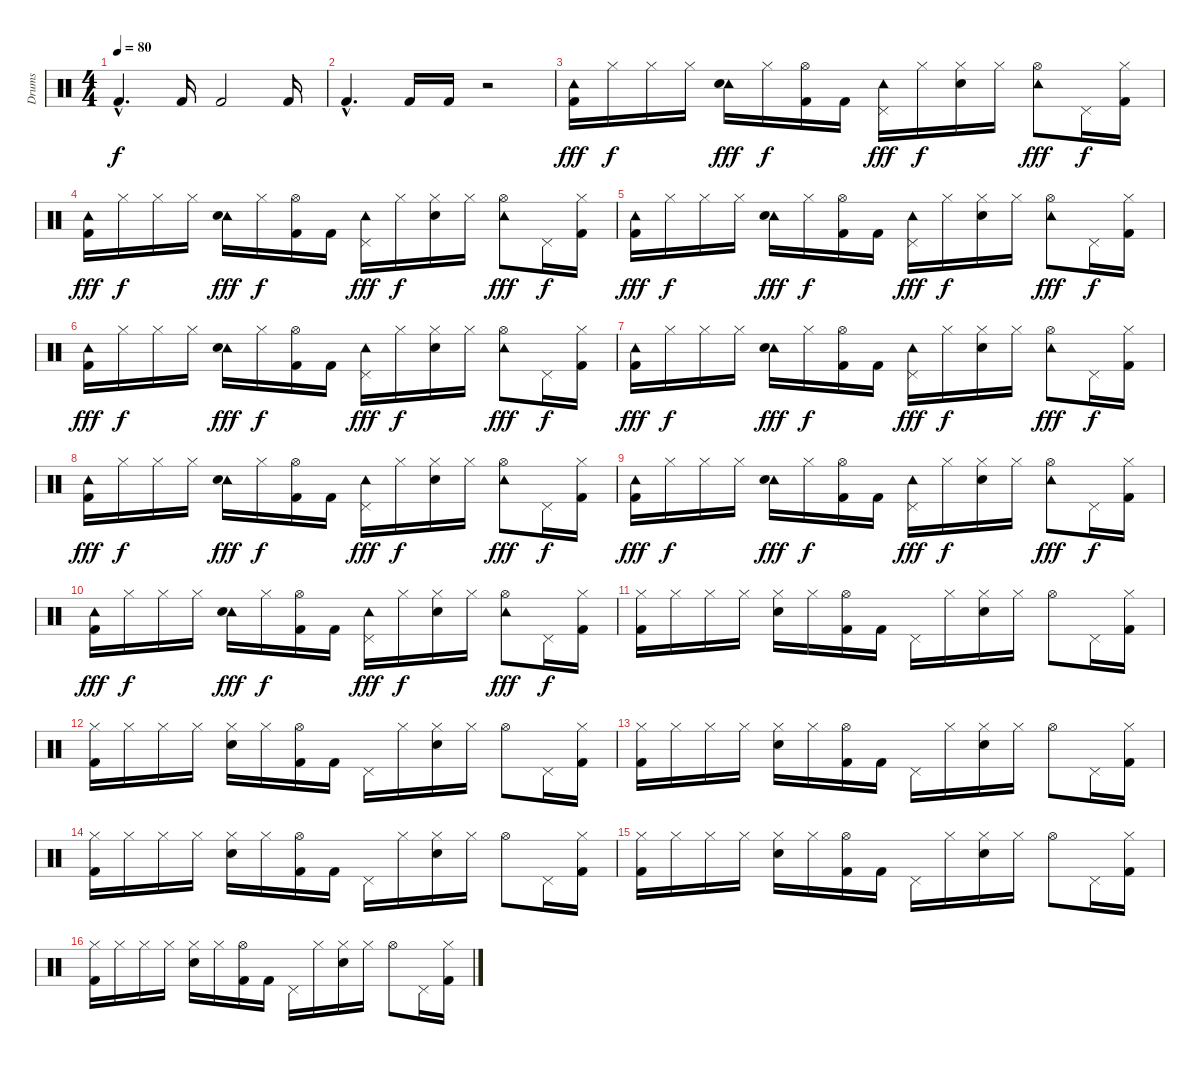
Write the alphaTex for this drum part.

\track ("Drums" "Drums") {instrument percussion}
\staff {score}
\articulation defaults
\ts (4 4)
\tempo 80
\clef neutral
\ks c "Kick (hit) 2"{hac}.4{d dy f} "Kick (hit) 2".16 "Kick (hit) 2".2 "Kick (hit) 2".16
|
"Kick (hit) 2"{hac}.4{d} "Kick (hit) 2".16 "Kick (hit) 2".16 r.2 |
("Tambourine (hit)" "Kick (hit) 2").16{dy fff} "Hi-Hat (closed)".16{dy f} "Hi-Hat (closed)".16 "Hi-Hat (closed)".16 ("Tambourine (hit)" "Electric Snare (hit)").16{dy fff} "Hi-Hat (closed)".16{dy f} ("Hi-Hat (open)" "Kick (hit) 2").16 "Kick (hit) 2".16 ("Pedal Hi-Hat (hit)" "Tambourine (hit)").16{dy fff} "Hi-Hat (closed)".16{dy f} ("Hi-Hat (closed)" "Electric Snare (hit)").16 "Hi-Hat (closed)".16 ("Hi-Hat (open)" "Tambourine (hit)").8{dy fff} "Pedal Hi-Hat (hit)".16{dy f} ("Hi-Hat (closed)" "Kick (hit) 2").16 |
("Tambourine (hit)" "Kick (hit) 2").16{dy fff} "Hi-Hat (closed)".16{dy f} "Hi-Hat (closed)".16 "Hi-Hat (closed)".16 ("Tambourine (hit)" "Electric Snare (hit)").16{dy fff} "Hi-Hat (closed)".16{dy f} ("Hi-Hat (open)" "Kick (hit) 2").16 "Kick (hit) 2".16 ("Pedal Hi-Hat (hit)" "Tambourine (hit)").16{dy fff} "Hi-Hat (closed)".16{dy f} ("Hi-Hat (closed)" "Electric Snare (hit)").16 "Hi-Hat (closed)".16 ("Hi-Hat (open)" "Tambourine (hit)").8{dy fff} "Pedal Hi-Hat (hit)".16{dy f} ("Hi-Hat (closed)" "Kick (hit) 2").16 |
("Tambourine (hit)" "Kick (hit) 2").16{dy fff} "Hi-Hat (closed)".16{dy f} "Hi-Hat (closed)".16 "Hi-Hat (closed)".16 ("Tambourine (hit)" "Electric Snare (hit)").16{dy fff} "Hi-Hat (closed)".16{dy f} ("Hi-Hat (open)" "Kick (hit) 2").16 "Kick (hit) 2".16 ("Pedal Hi-Hat (hit)" "Tambourine (hit)").16{dy fff} "Hi-Hat (closed)".16{dy f} ("Hi-Hat (closed)" "Electric Snare (hit)").16 "Hi-Hat (closed)".16 ("Hi-Hat (open)" "Tambourine (hit)").8{dy fff} "Pedal Hi-Hat (hit)".16{dy f} ("Hi-Hat (closed)" "Kick (hit) 2").16 |
("Tambourine (hit)" "Kick (hit) 2").16{dy fff} "Hi-Hat (closed)".16{dy f} "Hi-Hat (closed)".16 "Hi-Hat (closed)".16 ("Tambourine (hit)" "Electric Snare (hit)").16{dy fff} "Hi-Hat (closed)".16{dy f} ("Hi-Hat (open)" "Kick (hit) 2").16 "Kick (hit) 2".16 ("Pedal Hi-Hat (hit)" "Tambourine (hit)").16{dy fff} "Hi-Hat (closed)".16{dy f} ("Hi-Hat (closed)" "Electric Snare (hit)").16 "Hi-Hat (closed)".16 ("Hi-Hat (open)" "Tambourine (hit)").8{dy fff} "Pedal Hi-Hat (hit)".16{dy f} ("Hi-Hat (closed)" "Kick (hit) 2").16 |
("Tambourine (hit)" "Kick (hit) 2").16{dy fff} "Hi-Hat (closed)".16{dy f} "Hi-Hat (closed)".16 "Hi-Hat (closed)".16 ("Tambourine (hit)" "Electric Snare (hit)").16{dy fff} "Hi-Hat (closed)".16{dy f} ("Hi-Hat (open)" "Kick (hit) 2").16 "Kick (hit) 2".16 ("Pedal Hi-Hat (hit)" "Tambourine (hit)").16{dy fff} "Hi-Hat (closed)".16{dy f} ("Hi-Hat (closed)" "Electric Snare (hit)").16 "Hi-Hat (closed)".16 ("Hi-Hat (open)" "Tambourine (hit)").8{dy fff} "Pedal Hi-Hat (hit)".16{dy f} ("Hi-Hat (closed)" "Kick (hit) 2").16 |
("Tambourine (hit)" "Kick (hit) 2").16{dy fff} "Hi-Hat (closed)".16{dy f} "Hi-Hat (closed)".16 "Hi-Hat (closed)".16 ("Tambourine (hit)" "Electric Snare (hit)").16{dy fff} "Hi-Hat (closed)".16{dy f} ("Hi-Hat (open)" "Kick (hit) 2").16 "Kick (hit) 2".16 ("Pedal Hi-Hat (hit)" "Tambourine (hit)").16{dy fff} "Hi-Hat (closed)".16{dy f} ("Hi-Hat (closed)" "Electric Snare (hit)").16 "Hi-Hat (closed)".16 ("Hi-Hat (open)" "Tambourine (hit)").8{dy fff} "Pedal Hi-Hat (hit)".16{dy f} ("Hi-Hat (closed)" "Kick (hit) 2").16 |
("Tambourine (hit)" "Kick (hit) 2").16{dy fff} "Hi-Hat (closed)".16{dy f} "Hi-Hat (closed)".16 "Hi-Hat (closed)".16 ("Tambourine (hit)" "Electric Snare (hit)").16{dy fff} "Hi-Hat (closed)".16{dy f} ("Hi-Hat (open)" "Kick (hit) 2").16 "Kick (hit) 2".16 ("Pedal Hi-Hat (hit)" "Tambourine (hit)").16{dy fff} "Hi-Hat (closed)".16{dy f} ("Hi-Hat (closed)" "Electric Snare (hit)").16 "Hi-Hat (closed)".16 ("Hi-Hat (open)" "Tambourine (hit)").8{dy fff} "Pedal Hi-Hat (hit)".16{dy f} ("Hi-Hat (closed)" "Kick (hit) 2").16 |
("Tambourine (hit)" "Kick (hit) 2").16{dy fff} "Hi-Hat (closed)".16{dy f} "Hi-Hat (closed)".16 "Hi-Hat (closed)".16 ("Tambourine (hit)" "Electric Snare (hit)").16{dy fff} "Hi-Hat (closed)".16{dy f} ("Hi-Hat (open)" "Kick (hit) 2").16 "Kick (hit) 2".16 ("Pedal Hi-Hat (hit)" "Tambourine (hit)").16{dy fff} "Hi-Hat (closed)".16{dy f} ("Hi-Hat (closed)" "Electric Snare (hit)").16 "Hi-Hat (closed)".16 ("Hi-Hat (open)" "Tambourine (hit)").8{dy fff} "Pedal Hi-Hat (hit)".16{dy f} ("Hi-Hat (closed)" "Kick (hit) 2").16 |
("Hi-Hat (closed)" "Kick (hit) 2").16 "Hi-Hat (closed)".16 "Hi-Hat (closed)".16 "Hi-Hat (closed)".16 ("Hi-Hat (closed)" "Electric Snare (hit)").16 "Hi-Hat (closed)".16 ("Hi-Hat (open)" "Kick (hit) 2").16 "Kick (hit) 2".16 "Pedal Hi-Hat (hit)".16 "Hi-Hat (closed)".16 ("Hi-Hat (closed)" "Electric Snare (hit)").16 "Hi-Hat (closed)".16 "Hi-Hat (open)".8 "Pedal Hi-Hat (hit)".16 ("Hi-Hat (closed)" "Kick (hit) 2").16 |
("Hi-Hat (closed)" "Kick (hit) 2").16 "Hi-Hat (closed)".16 "Hi-Hat (closed)".16 "Hi-Hat (closed)".16 ("Hi-Hat (closed)" "Electric Snare (hit)").16 "Hi-Hat (closed)".16 ("Hi-Hat (open)" "Kick (hit) 2").16 "Kick (hit) 2".16 "Pedal Hi-Hat (hit)".16 "Hi-Hat (closed)".16 ("Hi-Hat (closed)" "Electric Snare (hit)").16 "Hi-Hat (closed)".16 "Hi-Hat (open)".8 "Pedal Hi-Hat (hit)".16 ("Hi-Hat (closed)" "Kick (hit) 2").16 |
("Hi-Hat (closed)" "Kick (hit) 2").16 "Hi-Hat (closed)".16 "Hi-Hat (closed)".16 "Hi-Hat (closed)".16 ("Hi-Hat (closed)" "Electric Snare (hit)").16 "Hi-Hat (closed)".16 ("Hi-Hat (open)" "Kick (hit) 2").16 "Kick (hit) 2".16 "Pedal Hi-Hat (hit)".16 "Hi-Hat (closed)".16 ("Hi-Hat (closed)" "Electric Snare (hit)").16 "Hi-Hat (closed)".16 "Hi-Hat (open)".8 "Pedal Hi-Hat (hit)".16 ("Hi-Hat (closed)" "Kick (hit) 2").16 |
("Hi-Hat (closed)" "Kick (hit) 2").16 "Hi-Hat (closed)".16 "Hi-Hat (closed)".16 "Hi-Hat (closed)".16 ("Hi-Hat (closed)" "Electric Snare (hit)").16 "Hi-Hat (closed)".16 ("Hi-Hat (open)" "Kick (hit) 2").16 "Kick (hit) 2".16 "Pedal Hi-Hat (hit)".16 "Hi-Hat (closed)".16 ("Hi-Hat (closed)" "Electric Snare (hit)").16 "Hi-Hat (closed)".16 "Hi-Hat (open)".8 "Pedal Hi-Hat (hit)".16 ("Hi-Hat (closed)" "Kick (hit) 2").16 |
("Hi-Hat (closed)" "Kick (hit) 2").16 "Hi-Hat (closed)".16 "Hi-Hat (closed)".16 "Hi-Hat (closed)".16 ("Hi-Hat (closed)" "Electric Snare (hit)").16 "Hi-Hat (closed)".16 ("Hi-Hat (open)" "Kick (hit) 2").16 "Kick (hit) 2".16 "Pedal Hi-Hat (hit)".16 "Hi-Hat (closed)".16 ("Hi-Hat (closed)" "Electric Snare (hit)").16 "Hi-Hat (closed)".16 "Hi-Hat (open)".8 "Pedal Hi-Hat (hit)".16 ("Hi-Hat (closed)" "Kick (hit) 2").16 |
("Hi-Hat (closed)" "Kick (hit) 2").16 "Hi-Hat (closed)".16 "Hi-Hat (closed)".16 "Hi-Hat (closed)".16 ("Hi-Hat (closed)" "Electric Snare (hit)").16 "Hi-Hat (closed)".16 ("Hi-Hat (open)" "Kick (hit) 2").16 "Kick (hit) 2".16 "Pedal Hi-Hat (hit)".16 "Hi-Hat (closed)".16 ("Hi-Hat (closed)" "Electric Snare (hit)").16 "Hi-Hat (closed)".16 "Hi-Hat (open)".8 "Pedal Hi-Hat (hit)".16 ("Hi-Hat (closed)" "Kick (hit) 2").16
